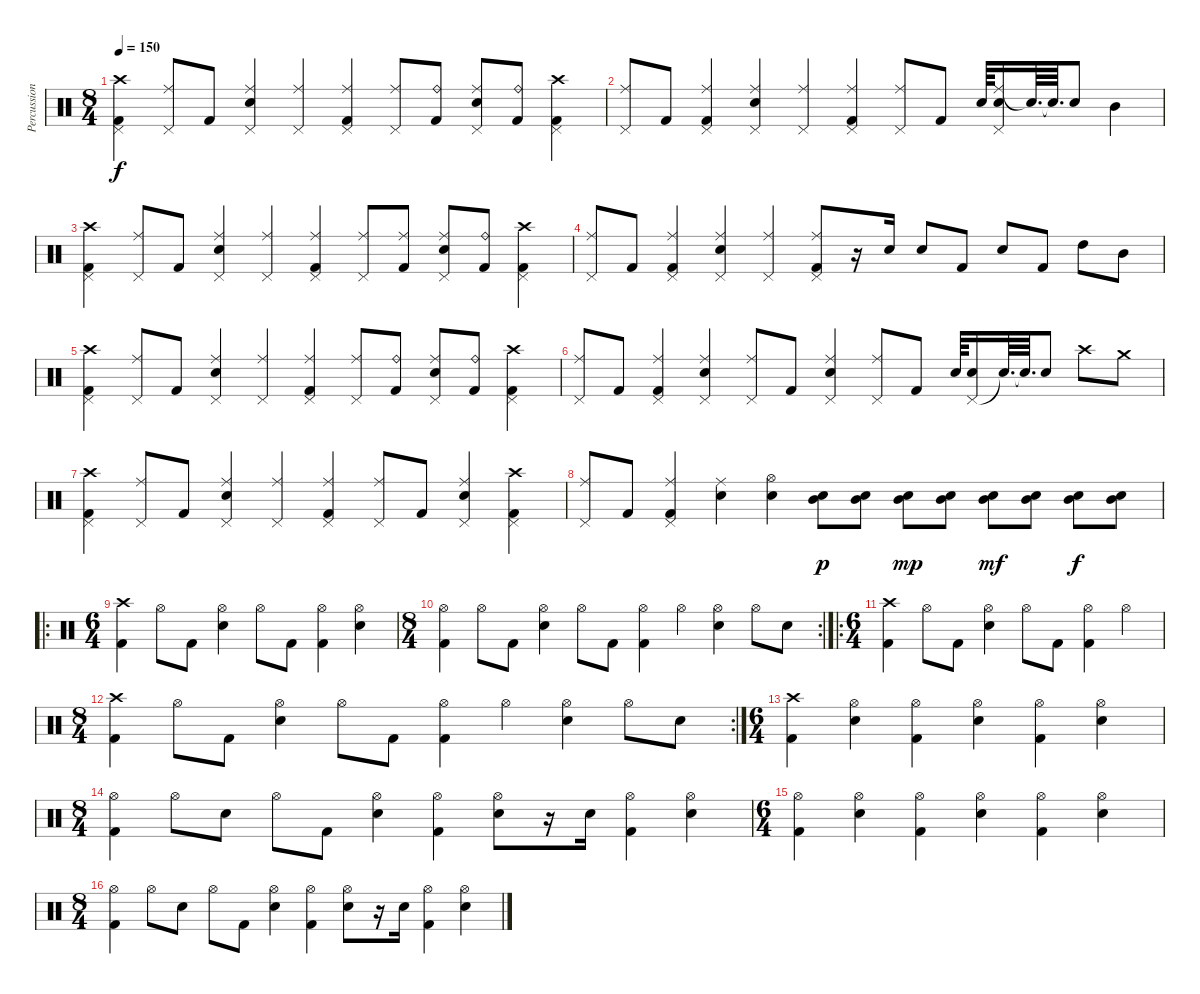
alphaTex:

\track ("Percussion" "Percussion") {instrument percussion}
\staff {score}
\articulation defaults
\ts (8 4)
\tempo 150
\clef neutral
\ks c
("Crash high (hit)" "Pedal Hi-Hat (hit)" "Kick (hit) 2").4{dy f} ("Ride (middle)" "Pedal Hi-Hat (hit)").8 "Kick (hit) 2".8 ("Ride (middle)" "Pedal Hi-Hat (hit)" "Electric Snare (hit)").4 ("Ride (middle)" "Pedal Hi-Hat (hit)").4 ("Ride (middle)" "Pedal Hi-Hat (hit)" "Kick (hit) 2").4 ("Ride (middle)" "Pedal Hi-Hat (hit)").8 ("Ride (bell)" "Kick (hit) 2").8 ("Ride (middle)" "Pedal Hi-Hat (hit)" "Electric Snare (hit)").8 ("Ride (bell)" "Kick (hit) 2").8 ("Crash high (hit)" "Pedal Hi-Hat (hit)" "Kick (hit) 2").4 |
("Ride (middle)" "Pedal Hi-Hat (hit)").8 "Kick (hit) 2".8 ("Ride (middle)" "Pedal Hi-Hat (hit)" "Kick (hit) 2").4 ("Ride (middle)" "Pedal Hi-Hat (hit)" "Electric Snare (hit)").4 ("Ride (middle)" "Pedal Hi-Hat (hit)").4 ("Ride (middle)" "Pedal Hi-Hat (hit)" "Kick (hit) 2").4 ("Ride (middle)" "Pedal Hi-Hat (hit)").8 "Kick (hit) 2".8 "Electric Snare (hit)".64 ("Ride (middle)" "Pedal Hi-Hat (hit)" "Electric Snare (hit)").16 "Snare (hit)"{t}.64{d} "Snare (hit)"{t}.64{d} "Electric Snare (hit)".8 "Mid Tom (hit)".4 |
("Crash high (hit)" "Pedal Hi-Hat (hit)" "Kick (hit) 2").4 ("Ride (middle)" "Pedal Hi-Hat (hit)").8 "Kick (hit) 2".8 ("Ride (middle)" "Pedal Hi-Hat (hit)" "Electric Snare (hit)").4 ("Ride (middle)" "Pedal Hi-Hat (hit)").4 ("Ride (middle)" "Pedal Hi-Hat (hit)" "Kick (hit) 2").4 ("Ride (middle)" "Pedal Hi-Hat (hit)").8 ("Ride (middle)" "Kick (hit) 2").8 ("Ride (middle)" "Pedal Hi-Hat (hit)" "Electric Snare (hit)").8 ("Ride (bell)" "Kick (hit) 2").8 ("Crash high (hit)" "Pedal Hi-Hat (hit)" "Kick (hit) 2").4 |
("Ride (middle)" "Pedal Hi-Hat (hit)").8 "Kick (hit) 2".8 ("Ride (middle)" "Pedal Hi-Hat (hit)" "Kick (hit) 2").4 ("Ride (middle)" "Pedal Hi-Hat (hit)" "Electric Snare (hit)").4 ("Ride (middle)" "Pedal Hi-Hat (hit)").4 ("Ride (middle)" "Pedal Hi-Hat (hit)" "Kick (hit) 2").8 r.16 "Electric Snare (hit)".16 "Electric Snare (hit)".8 "Kick (hit) 2".8 "Electric Snare (hit)".8 "Kick (hit) 2".8 "High Tom (hit)".8 "Mid Tom (hit)".8 |
("Crash high (hit)" "Pedal Hi-Hat (hit)" "Kick (hit) 2").4 ("Ride (middle)" "Pedal Hi-Hat (hit)").8 "Kick (hit) 2".8 ("Ride (middle)" "Pedal Hi-Hat (hit)" "Electric Snare (hit)").4 ("Ride (middle)" "Pedal Hi-Hat (hit)").4 ("Ride (middle)" "Pedal Hi-Hat (hit)" "Kick (hit) 2").4 ("Ride (middle)" "Pedal Hi-Hat (hit)").8 ("Ride (bell)" "Kick (hit) 2").8 ("Ride (middle)" "Pedal Hi-Hat (hit)" "Electric Snare (hit)").8 ("Ride (bell)" "Kick (hit) 2").8 ("Crash high (hit)" "Pedal Hi-Hat (hit)" "Kick (hit) 2").4 |
("Ride (middle)" "Pedal Hi-Hat (hit)").8 "Kick (hit) 2".8 ("Ride (middle)" "Pedal Hi-Hat (hit)" "Kick (hit) 2").4 ("Ride (middle)" "Pedal Hi-Hat (hit)" "Electric Snare (hit)").4 ("Ride (middle)" "Pedal Hi-Hat (hit)").8 "Kick (hit) 2".8 ("Ride (middle)" "Pedal Hi-Hat (hit)" "Electric Snare (hit)").4 ("Ride (middle)" "Pedal Hi-Hat (hit)").8 "Kick (hit) 2".8 "Electric Snare (hit)".64 ("Pedal Hi-Hat (hit)" "Electric Snare (hit)").16 "Snare (hit)"{t}.64{d} "Snare (hit)"{t}.64{d} "Electric Snare (hit)".8 "Crash high (hit)".8 "Crash medium (hit)".8 |
("Crash high (hit)" "Pedal Hi-Hat (hit)" "Kick (hit) 2").4 ("Ride (middle)" "Pedal Hi-Hat (hit)").8 "Kick (hit) 2".8 ("Ride (middle)" "Pedal Hi-Hat (hit)" "Electric Snare (hit)").4 ("Ride (middle)" "Pedal Hi-Hat (hit)").4 ("Ride (middle)" "Pedal Hi-Hat (hit)" "Kick (hit) 2").4 ("Ride (middle)" "Pedal Hi-Hat (hit)").8 "Kick (hit) 2".8 ("Ride (middle)" "Pedal Hi-Hat (hit)" "Electric Snare (hit)").4 ("Crash high (hit)" "Pedal Hi-Hat (hit)" "Kick (hit) 2").4 |
("Ride (middle)" "Pedal Hi-Hat (hit)").8 "Kick (hit) 2".8 ("Ride (middle)" "Pedal Hi-Hat (hit)" "Kick (hit) 2").4 ("Ride (middle)" "Electric Snare (hit)").4 ("Hi-Hat (open)" "Electric Snare (hit)").4 ("Mid Tom (hit)" "Electric Snare (hit)").8{dy p} ("Mid Tom (hit)" "Electric Snare (hit)").8 ("Mid Tom (hit)" "Electric Snare (hit)").8{dy mp} ("Mid Tom (hit)" "Electric Snare (hit)").8 ("Mid Tom (hit)" "Electric Snare (hit)").8{dy mf} ("Mid Tom (hit)" "Electric Snare (hit)").8 ("Mid Tom (hit)" "Electric Snare (hit)").8{dy f} ("Mid Tom (hit)" "Electric Snare (hit)").8 |
\ro
\ts (6 4)
("Crash high (hit)" "Kick (hit) 2").4{volume 15} "Hi-Hat (open)".8 "Kick (hit) 2".8 ("Hi-Hat (open)" "Electric Snare (hit)").4 "Hi-Hat (open)".8 "Kick (hit) 2".8 ("Hi-Hat (open)" "Kick (hit) 2").4 ("Hi-Hat (open)" "Electric Snare (hit)").4 |
\rc 2
\ts (8 4)
("Hi-Hat (open)" "Kick (hit) 2").4 "Hi-Hat (open)".8 "Kick (hit) 2".8 ("Hi-Hat (open)" "Electric Snare (hit)").4 "Hi-Hat (open)".8 "Kick (hit) 2".8 ("Hi-Hat (open)" "Kick (hit) 2").4 "Hi-Hat (open)".4 ("Hi-Hat (open)" "Electric Snare (hit)").4 "Hi-Hat (open)".8 "Electric Snare (hit)".8 |
\ro
\ts (6 4)
("Crash high (hit)" "Kick (hit) 2").4 "Hi-Hat (open)".8 "Kick (hit) 2".8 ("Hi-Hat (open)" "Electric Snare (hit)").4 "Hi-Hat (open)".8 "Kick (hit) 2".8 ("Hi-Hat (open)" "Kick (hit) 2").4 "Hi-Hat (open)".4 |
\rc 2
\ts (8 4)
("Crash high (hit)" "Kick (hit) 2").4 "Hi-Hat (open)".8 "Kick (hit) 2".8 ("Hi-Hat (open)" "Electric Snare (hit)").4 "Hi-Hat (open)".8 "Kick (hit) 2".8 ("Hi-Hat (open)" "Kick (hit) 2").4 "Hi-Hat (open)".4 ("Hi-Hat (open)" "Electric Snare (hit)").4 "Hi-Hat (open)".8 "Electric Snare (hit)".8 |
\ts (6 4)
("Crash high (hit)" "Kick (hit) 2").4 ("Hi-Hat (open)" "Electric Snare (hit)").4 ("Hi-Hat (open)" "Kick (hit) 2").4 ("Hi-Hat (open)" "Electric Snare (hit)").4 ("Hi-Hat (open)" "Kick (hit) 2").4 ("Hi-Hat (open)" "Electric Snare (hit)").4 |
\ts (8 4)
("Hi-Hat (open)" "Kick (hit) 2").4 "Hi-Hat (open)".8 "Electric Snare (hit)".8 "Hi-Hat (open)".8 "Kick (hit) 2".8 ("Hi-Hat (open)" "Electric Snare (hit)").4 ("Hi-Hat (open)" "Kick (hit) 2").4 ("Hi-Hat (open)" "Electric Snare (hit)").8 r.16 "Electric Snare (hit)".16 ("Hi-Hat (open)" "Kick (hit) 2").4 ("Hi-Hat (open)" "Electric Snare (hit)").4 |
\ts (6 4)
("Hi-Hat (open)" "Kick (hit) 2").4 ("Hi-Hat (open)" "Electric Snare (hit)").4 ("Hi-Hat (open)" "Kick (hit) 2").4 ("Hi-Hat (open)" "Electric Snare (hit)").4 ("Hi-Hat (open)" "Kick (hit) 2").4 ("Hi-Hat (open)" "Electric Snare (hit)").4 |
\ts (8 4)
("Hi-Hat (open)" "Kick (hit) 2").4 "Hi-Hat (open)".8 "Electric Snare (hit)".8 "Hi-Hat (open)".8 "Kick (hit) 2".8 ("Hi-Hat (open)" "Electric Snare (hit)").4 ("Hi-Hat (open)" "Kick (hit) 2").4 ("Hi-Hat (open)" "Electric Snare (hit)").8 r.16 "Electric Snare (hit)".16 ("Hi-Hat (open)" "Kick (hit) 2").4 ("Hi-Hat (open)" "Electric Snare (hit)").4
